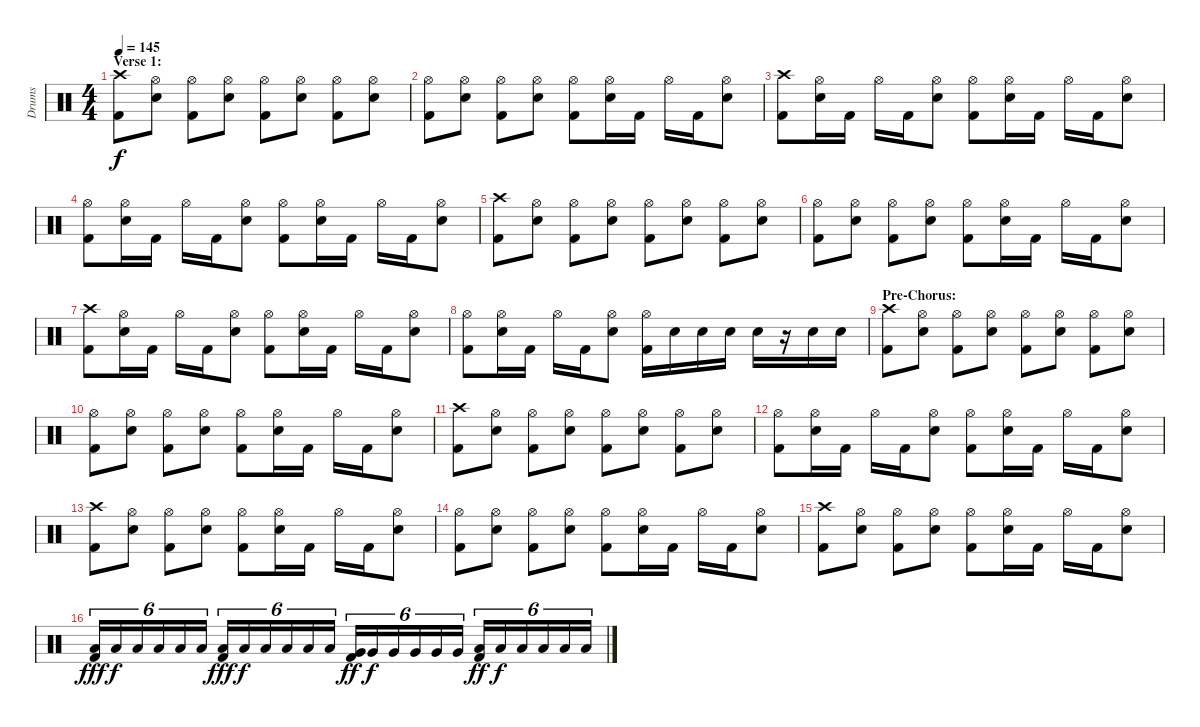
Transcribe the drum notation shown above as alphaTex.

\track ("Drums" "Drums") {instrument percussion}
\staff {score}
\articulation defaults
\ts (4 4)
\section ("" "Verse 1:")
\tempo 145
\clef neutral
\ks c
("Crash high (hit)" "Kick (hit) 2").8{dy f} ("Hi-Hat (open)" "Electric Snare (hit)").8 ("Hi-Hat (open)" "Kick (hit) 2").8 ("Hi-Hat (open)" "Electric Snare (hit)").8 ("Hi-Hat (open)" "Kick (hit) 2").8 ("Hi-Hat (open)" "Electric Snare (hit)").8 ("Hi-Hat (open)" "Kick (hit) 2").8 ("Hi-Hat (open)" "Electric Snare (hit)").8 |
("Hi-Hat (open)" "Kick (hit) 2").8 ("Hi-Hat (open)" "Electric Snare (hit)").8 ("Hi-Hat (open)" "Kick (hit) 2").8 ("Hi-Hat (open)" "Electric Snare (hit)").8 ("Hi-Hat (open)" "Kick (hit) 2").8 ("Hi-Hat (open)" "Electric Snare (hit)").16 "Kick (hit) 2".16 "Hi-Hat (open)".16 "Kick (hit) 2".16 ("Hi-Hat (open)" "Electric Snare (hit)").8 |
("Crash high (hit)" "Kick (hit) 2").8 ("Hi-Hat (open)" "Electric Snare (hit)").16 "Kick (hit) 2".16 "Hi-Hat (open)".16 "Kick (hit) 2".16 ("Hi-Hat (open)" "Electric Snare (hit)").8 ("Hi-Hat (open)" "Kick (hit) 2").8 ("Hi-Hat (open)" "Electric Snare (hit)").16 "Kick (hit) 2".16 "Hi-Hat (open)".16 "Kick (hit) 2".16 ("Hi-Hat (open)" "Electric Snare (hit)").8 |
("Hi-Hat (open)" "Kick (hit) 2").8 ("Hi-Hat (open)" "Electric Snare (hit)").16 "Kick (hit) 2".16 "Hi-Hat (open)".16 "Kick (hit) 2".16 ("Hi-Hat (open)" "Electric Snare (hit)").8 ("Hi-Hat (open)" "Kick (hit) 2").8 ("Hi-Hat (open)" "Electric Snare (hit)").16 "Kick (hit) 2".16 "Hi-Hat (open)".16 "Kick (hit) 2".16 ("Hi-Hat (open)" "Electric Snare (hit)").8 |
("Crash high (hit)" "Kick (hit) 2").8 ("Hi-Hat (open)" "Electric Snare (hit)").8 ("Hi-Hat (open)" "Kick (hit) 2").8 ("Hi-Hat (open)" "Electric Snare (hit)").8 ("Hi-Hat (open)" "Kick (hit) 2").8 ("Hi-Hat (open)" "Electric Snare (hit)").8 ("Hi-Hat (open)" "Kick (hit) 2").8 ("Hi-Hat (open)" "Electric Snare (hit)").8 |
("Hi-Hat (open)" "Kick (hit) 2").8 ("Hi-Hat (open)" "Electric Snare (hit)").8 ("Hi-Hat (open)" "Kick (hit) 2").8 ("Hi-Hat (open)" "Electric Snare (hit)").8 ("Hi-Hat (open)" "Kick (hit) 2").8 ("Hi-Hat (open)" "Electric Snare (hit)").16 "Kick (hit) 2".16 "Hi-Hat (open)".16 "Kick (hit) 2".16 ("Hi-Hat (open)" "Electric Snare (hit)").8 |
("Crash high (hit)" "Kick (hit) 2").8 ("Hi-Hat (open)" "Electric Snare (hit)").16 "Kick (hit) 2".16 "Hi-Hat (open)".16 "Kick (hit) 2".16 ("Hi-Hat (open)" "Electric Snare (hit)").8 ("Hi-Hat (open)" "Kick (hit) 2").8 ("Hi-Hat (open)" "Electric Snare (hit)").16 "Kick (hit) 2".16 "Hi-Hat (open)".16 "Kick (hit) 2".16 ("Hi-Hat (open)" "Electric Snare (hit)").8 |
("Hi-Hat (open)" "Kick (hit) 2").8 ("Hi-Hat (open)" "Electric Snare (hit)").16 "Kick (hit) 2".16 "Hi-Hat (open)".16 "Kick (hit) 2".16 ("Hi-Hat (open)" "Electric Snare (hit)").8 ("Hi-Hat (open)" "Kick (hit) 2").16 "Electric Snare (hit)".16 "Electric Snare (hit)".16 "Electric Snare (hit)".16 "Electric Snare (hit)".16 r.16 "Electric Snare (hit)".16 "Electric Snare (hit)".16 |
\section ("" "Pre-Chorus:")
("Crash high (hit)" "Kick (hit) 2").8 ("Hi-Hat (open)" "Electric Snare (hit)").8 ("Hi-Hat (open)" "Kick (hit) 2").8 ("Hi-Hat (open)" "Electric Snare (hit)").8 ("Hi-Hat (open)" "Kick (hit) 2").8 ("Hi-Hat (open)" "Electric Snare (hit)").8 ("Hi-Hat (open)" "Kick (hit) 2").8 ("Hi-Hat (open)" "Electric Snare (hit)").8 |
("Hi-Hat (open)" "Kick (hit) 2").8 ("Hi-Hat (open)" "Electric Snare (hit)").8 ("Hi-Hat (open)" "Kick (hit) 2").8 ("Hi-Hat (open)" "Electric Snare (hit)").8 ("Hi-Hat (open)" "Kick (hit) 2").8 ("Hi-Hat (open)" "Electric Snare (hit)").16 "Kick (hit) 2".16 "Hi-Hat (open)".16 "Kick (hit) 2".16 ("Hi-Hat (open)" "Electric Snare (hit)").8 |
("Crash high (hit)" "Kick (hit) 2").8 ("Hi-Hat (open)" "Electric Snare (hit)").8 ("Hi-Hat (open)" "Kick (hit) 2").8 ("Hi-Hat (open)" "Electric Snare (hit)").8 ("Hi-Hat (open)" "Kick (hit) 2").8 ("Hi-Hat (open)" "Electric Snare (hit)").8 ("Hi-Hat (open)" "Kick (hit) 2").8 ("Hi-Hat (open)" "Electric Snare (hit)").8 |
("Hi-Hat (open)" "Kick (hit) 2").8 ("Hi-Hat (open)" "Electric Snare (hit)").16 "Kick (hit) 2".16 "Hi-Hat (open)".16 "Kick (hit) 2".16 ("Hi-Hat (open)" "Electric Snare (hit)").8 ("Hi-Hat (open)" "Kick (hit) 2").8 ("Hi-Hat (open)" "Electric Snare (hit)").16 "Kick (hit) 2".16 "Hi-Hat (open)".16 "Kick (hit) 2".16 ("Hi-Hat (open)" "Electric Snare (hit)").8 |
("Crash high (hit)" "Kick (hit) 2").8 ("Hi-Hat (open)" "Electric Snare (hit)").8 ("Hi-Hat (open)" "Kick (hit) 2").8 ("Hi-Hat (open)" "Electric Snare (hit)").8 ("Hi-Hat (open)" "Kick (hit) 2").8 ("Hi-Hat (open)" "Electric Snare (hit)").16 "Kick (hit) 2".16 "Hi-Hat (open)".16 "Kick (hit) 2".16 ("Hi-Hat (open)" "Electric Snare (hit)").8 |
("Hi-Hat (open)" "Kick (hit) 2").8 ("Hi-Hat (open)" "Electric Snare (hit)").8 ("Hi-Hat (open)" "Kick (hit) 2").8 ("Hi-Hat (open)" "Electric Snare (hit)").8 ("Hi-Hat (open)" "Kick (hit) 2").8 ("Hi-Hat (open)" "Electric Snare (hit)").16 "Kick (hit) 2".16 "Hi-Hat (open)".16 "Kick (hit) 2".16 ("Hi-Hat (open)" "Electric Snare (hit)").8 |
("Crash high (hit)" "Kick (hit) 2").8 ("Hi-Hat (open)" "Electric Snare (hit)").8 ("Hi-Hat (open)" "Kick (hit) 2").8 ("Hi-Hat (open)" "Electric Snare (hit)").8 ("Hi-Hat (open)" "Kick (hit) 2").8 ("Hi-Hat (open)" "Electric Snare (hit)").16 "Kick (hit) 2".16 "Hi-Hat (open)".16 "Kick (hit) 2".16 ("Hi-Hat (open)" "Electric Snare (hit)").8 |
("Low Tom (hit)" "Kick (hit) 2").16{tu (6 4) dy fff} "Low Tom (hit)".16{tu (6 4) dy f} "Low Tom (hit)".16{tu (6 4)} "Low Tom (hit)".16{tu (6 4)} "Low Tom (hit)".16{tu (6 4)} "Low Tom (hit)".16{tu (6 4)} ("Low Tom (hit)" "Kick (hit) 2").16{tu (6 4) dy fff} "Low Tom (hit)".16{tu (6 4) dy f} "Low Tom (hit)".16{tu (6 4)} "Low Tom (hit)".16{tu (6 4)} "Low Tom (hit)".16{tu (6 4)} "Low Tom (hit)".16{tu (6 4)} ("Very Low Tom (hit)" "Kick (hit) 2").16{tu (6 4) dy ff} "Very Low Tom (hit)".16{tu (6 4) dy f} "Very Low Tom (hit)".16{tu (6 4)} "Very Low Tom (hit)".16{tu (6 4)} "Very Low Tom (hit)".16{tu (6 4)} "Very Low Tom (hit)".16{tu (6 4)} ("Low Floor Tom (hit)" "Kick (hit) 2").16{tu (6 4) dy ff} "Low Floor Tom (hit)".16{tu (6 4) dy f} "Low Floor Tom (hit)".16{tu (6 4)} "Low Floor Tom (hit)".16{tu (6 4)} "Low Floor Tom (hit)".16{tu (6 4)} "Low Floor Tom (hit)".16{tu (6 4)}
